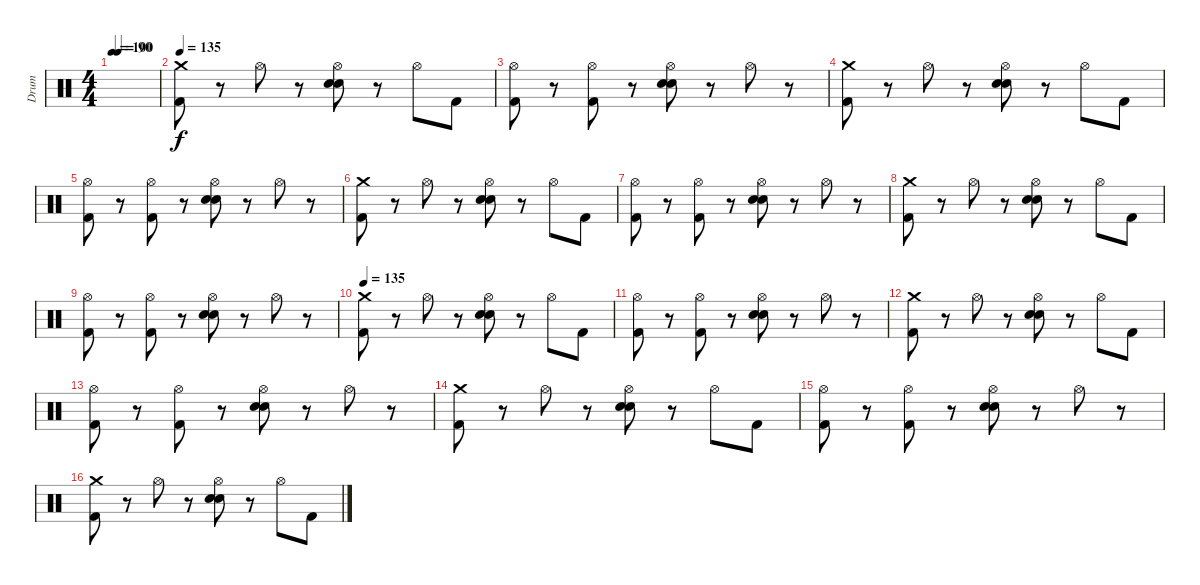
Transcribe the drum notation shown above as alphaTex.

\track ("Drum" "Drum") {instrument percussion}
\staff {score}
\articulation defaults
\ts (4 4)
\tempo 100
\tempo (90 0.125)
\clef neutral
\ks c
|
\tempo 135
("Crash medium (hit)" "Kick (hit) 2").8 r.8 "Hi-Hat (open)".8 r.8 ("Hi-Hat (open)" "Snare (hit) 2" "Electric Snare (hit)").8 r.8 "Hi-Hat (open)".8 "Kick (hit) 2".8 |
("Hi-Hat (open)" "Kick (hit) 2").8 r.8 ("Hi-Hat (open)" "Kick (hit) 2").8 r.8 ("Hi-Hat (open)" "Snare (hit) 2" "Electric Snare (hit)").8 r.8 "Hi-Hat (open)".8 r.8 |
("Crash medium (hit)" "Kick (hit) 2").8 r.8 "Hi-Hat (open)".8 r.8 ("Hi-Hat (open)" "Snare (hit) 2" "Electric Snare (hit)").8 r.8 "Hi-Hat (open)".8 "Kick (hit) 2".8 |
("Hi-Hat (open)" "Kick (hit) 2").8 r.8 ("Hi-Hat (open)" "Kick (hit) 2").8 r.8 ("Hi-Hat (open)" "Snare (hit) 2" "Electric Snare (hit)").8 r.8 "Hi-Hat (open)".8 r.8 |
("Crash medium (hit)" "Kick (hit) 2").8 r.8 "Hi-Hat (open)".8 r.8 ("Hi-Hat (open)" "Snare (hit) 2" "Electric Snare (hit)").8 r.8 "Hi-Hat (open)".8 "Kick (hit) 2".8 |
("Hi-Hat (open)" "Kick (hit) 2").8 r.8 ("Hi-Hat (open)" "Kick (hit) 2").8 r.8 ("Hi-Hat (open)" "Snare (hit) 2" "Electric Snare (hit)").8 r.8 "Hi-Hat (open)".8 r.8 |
("Crash medium (hit)" "Kick (hit) 2").8 r.8 "Hi-Hat (open)".8 r.8 ("Hi-Hat (open)" "Snare (hit) 2" "Electric Snare (hit)").8 r.8 "Hi-Hat (open)".8 "Kick (hit) 2".8 |
("Hi-Hat (open)" "Kick (hit) 2").8 r.8 ("Hi-Hat (open)" "Kick (hit) 2").8 r.8 ("Hi-Hat (open)" "Snare (hit) 2" "Electric Snare (hit)").8 r.8 "Hi-Hat (open)".8 r.8 |
\tempo 135
("Crash medium (hit)" "Kick (hit) 2").8 r.8 "Hi-Hat (open)".8 r.8 ("Hi-Hat (open)" "Snare (hit) 2" "Electric Snare (hit)").8 r.8 "Hi-Hat (open)".8 "Kick (hit) 2".8 |
("Hi-Hat (open)" "Kick (hit) 2").8 r.8 ("Hi-Hat (open)" "Kick (hit) 2").8 r.8 ("Hi-Hat (open)" "Snare (hit) 2" "Electric Snare (hit)").8 r.8 "Hi-Hat (open)".8 r.8 |
("Crash medium (hit)" "Kick (hit) 2").8 r.8 "Hi-Hat (open)".8 r.8 ("Hi-Hat (open)" "Snare (hit) 2" "Electric Snare (hit)").8 r.8 "Hi-Hat (open)".8 "Kick (hit) 2".8 |
("Hi-Hat (open)" "Kick (hit) 2").8 r.8 ("Hi-Hat (open)" "Kick (hit) 2").8 r.8 ("Hi-Hat (open)" "Snare (hit) 2" "Electric Snare (hit)").8 r.8 "Hi-Hat (open)".8 r.8 |
("Crash medium (hit)" "Kick (hit) 2").8 r.8 "Hi-Hat (open)".8 r.8 ("Hi-Hat (open)" "Snare (hit) 2" "Electric Snare (hit)").8 r.8 "Hi-Hat (open)".8 "Kick (hit) 2".8 |
("Hi-Hat (open)" "Kick (hit) 2").8 r.8 ("Hi-Hat (open)" "Kick (hit) 2").8 r.8 ("Hi-Hat (open)" "Snare (hit) 2" "Electric Snare (hit)").8 r.8 "Hi-Hat (open)".8 r.8 |
("Crash medium (hit)" "Kick (hit) 2").8 r.8 "Hi-Hat (open)".8 r.8 ("Hi-Hat (open)" "Snare (hit) 2" "Electric Snare (hit)").8 r.8 "Hi-Hat (open)".8 "Kick (hit) 2".8
